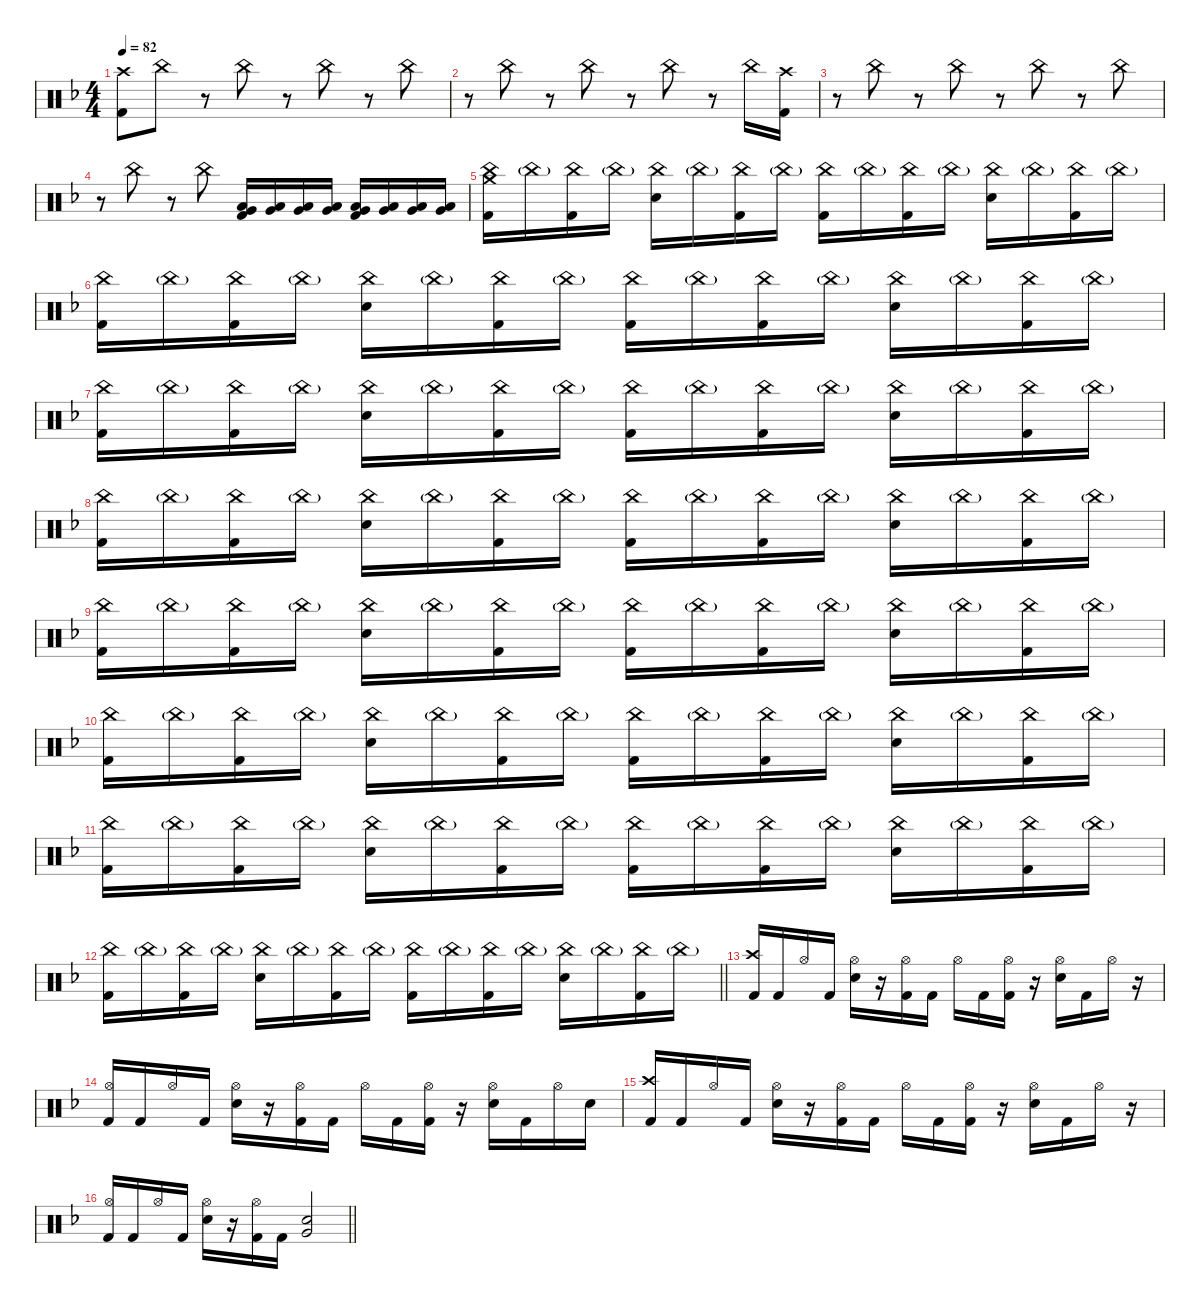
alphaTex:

\defaultSystemsLayout 4
\hideDynamics
\bracketExtendMode nobrackets
\singleTrackTrackNamePolicy hidden
\multiTrackTrackNamePolicy hidden
\firstSystemTrackNameMode fullname
\firstSystemTrackNameOrientation horizontal
\otherSystemsTrackNameOrientation horizontal
\track ("Drums" "drm.") {defaultSystemsLayout 4 instrument percussion}
\staff {score}
\articulation defaults
\ts (4 4)
\tempo 82
\clef neutral
\ks dminor
("Crash high (hit)"{acc forcenatural} "Kick (hit) 2"{acc forcenatural}).8{dy f beam Down} "China (hit)"{acc forcenatural}.8{dy mf beam Down} r.8{beam Down} "China (hit)"{acc forcenatural}.8{beam Down} r.8{beam Down} "China (hit)"{acc forcenatural}.8{beam Down} r.8{beam Down} "China (hit)"{acc forcenatural}.8{beam Down} |
r.8{beam Down} "China (hit)"{acc forcenatural}.8{beam Down} r.8{beam Down} "China (hit)"{acc forcenatural}.8{beam Down} r.8{beam Down} "China (hit)"{acc forcenatural}.8{beam Down} r.8{beam Down} "China (hit)"{acc forcenatural}.16{beam Down} ("Crash high (hit)"{acc forcenatural} "Kick (hit) 2"{acc forcenatural}).16{dy f beam Down} |
r.8{beam Down} "China (hit)"{acc forcenatural}.8{dy mf beam Down} r.8{beam Down} "China (hit)"{acc forcenatural}.8{beam Down} r.8{beam Down} "China (hit)"{acc forcenatural}.8{beam Down} r.8{beam Down} "China (hit)"{acc forcenatural}.8{beam Down} |
r.8{beam Down} "China (hit)"{acc forcenatural}.8{beam Down} r.8{beam Down} "China (hit)"{acc forcenatural}.8{beam Down} ("Low Tom (hit)"{acc forcenatural} "Very Low Tom (hit)"{acc forcenatural} "Kick (hit) 2"{acc forcenatural}).16{beam Up} ("Low Tom (hit)"{acc forcenatural} "Very Low Tom (hit)"{acc forcenatural}).16{beam Up} ("Low Tom (hit)"{acc forcenatural} "Very Low Tom (hit)"{acc forcenatural}).16{dy f beam Up} ("Low Tom (hit)"{acc forcenatural} "Very Low Tom (hit)"{acc forcenatural}).16{beam Up} ("Low Tom (hit)"{acc forcenatural} "Very Low Tom (hit)"{acc forcenatural} "Kick (hit) 2"{acc forcenatural}).16{dy ff beam Up} ("Low Tom (hit)"{acc forcenatural} "Very Low Tom (hit)"{acc forcenatural}).16{beam Up} ("Low Tom (hit)"{acc forcenatural} "Very Low Tom (hit)"{acc forcenatural}).16{dy fff beam Up} ("Low Tom (hit)"{acc forcenatural} "Very Low Tom (hit)"{acc forcenatural}).16{beam Up} |
("Crash medium (hit)"{acc forcenatural} "China (hit)"{acc forcenatural} "Kick (hit) 2"{acc forcenatural}).16{dy f beam Down} "China (hit)"{g acc forcenatural}.16{dy mf beam Down} ("China (hit)"{acc forcenatural} "Kick (hit) 2"{acc forcenatural}).16{beam Down} "China (hit)"{g acc forcenatural}.16{beam Down} ("China (hit)"{acc forcenatural} "Snare (hit) 2"{acc forcenatural}).16{beam Down} "China (hit)"{g acc forcenatural}.16{beam Down} ("China (hit)"{acc forcenatural} "Kick (hit) 2"{acc forcenatural}).16{beam Down} "China (hit)"{g acc forcenatural}.16{beam Down} ("China (hit)"{acc forcenatural} "Kick (hit) 2"{acc forcenatural}).16{beam Down} "China (hit)"{g acc forcenatural}.16{beam Down} ("China (hit)"{acc forcenatural} "Kick (hit) 2"{acc forcenatural}).16{beam Down} "China (hit)"{g acc forcenatural}.16{beam Down} ("China (hit)"{acc forcenatural} "Snare (hit) 2"{acc forcenatural}).16{beam Down} "China (hit)"{g acc forcenatural}.16{beam Down} ("China (hit)"{acc forcenatural} "Kick (hit) 2"{acc forcenatural}).16{beam Down} "China (hit)"{g acc forcenatural}.16{beam Down} |
("China (hit)"{acc forcenatural} "Kick (hit) 2"{acc forcenatural}).16{beam Down} "China (hit)"{g acc forcenatural}.16{beam Down} ("China (hit)"{acc forcenatural} "Kick (hit) 2"{acc forcenatural}).16{beam Down} "China (hit)"{g acc forcenatural}.16{beam Down} ("China (hit)"{acc forcenatural} "Snare (hit) 2"{acc forcenatural}).16{beam Down} "China (hit)"{g acc forcenatural}.16{beam Down} ("China (hit)"{acc forcenatural} "Kick (hit) 2"{acc forcenatural}).16{beam Down} "China (hit)"{g acc forcenatural}.16{beam Down} ("China (hit)"{acc forcenatural} "Kick (hit) 2"{acc forcenatural}).16{beam Down} "China (hit)"{g acc forcenatural}.16{beam Down} ("China (hit)"{acc forcenatural} "Kick (hit) 2"{acc forcenatural}).16{beam Down} "China (hit)"{g acc forcenatural}.16{beam Down} ("China (hit)"{acc forcenatural} "Snare (hit) 2"{acc forcenatural}).16{beam Down} "China (hit)"{g acc forcenatural}.16{beam Down} ("China (hit)"{acc forcenatural} "Kick (hit) 2"{acc forcenatural}).16{beam Down} "China (hit)"{g acc forcenatural}.16{beam Down} |
("China (hit)"{acc forcenatural} "Kick (hit) 2"{acc forcenatural}).16{beam Down} "China (hit)"{g acc forcenatural}.16{beam Down} ("China (hit)"{acc forcenatural} "Kick (hit) 2"{acc forcenatural}).16{beam Down} "China (hit)"{g acc forcenatural}.16{beam Down} ("China (hit)"{acc forcenatural} "Snare (hit) 2"{acc forcenatural}).16{beam Down} "China (hit)"{g acc forcenatural}.16{beam Down} ("China (hit)"{acc forcenatural} "Kick (hit) 2"{acc forcenatural}).16{beam Down} "China (hit)"{g acc forcenatural}.16{beam Down} ("China (hit)"{acc forcenatural} "Kick (hit) 2"{acc forcenatural}).16{beam Down} "China (hit)"{g acc forcenatural}.16{beam Down} ("China (hit)"{acc forcenatural} "Kick (hit) 2"{acc forcenatural}).16{beam Down} "China (hit)"{g acc forcenatural}.16{beam Down} ("China (hit)"{acc forcenatural} "Snare (hit) 2"{acc forcenatural}).16{beam Down} "China (hit)"{g acc forcenatural}.16{beam Down} ("China (hit)"{acc forcenatural} "Kick (hit) 2"{acc forcenatural}).16{beam Down} "China (hit)"{g acc forcenatural}.16{beam Down} |
("China (hit)"{acc forcenatural} "Kick (hit) 2"{acc forcenatural}).16{beam Down} "China (hit)"{g acc forcenatural}.16{beam Down} ("China (hit)"{acc forcenatural} "Kick (hit) 2"{acc forcenatural}).16{beam Down} "China (hit)"{g acc forcenatural}.16{beam Down} ("China (hit)"{acc forcenatural} "Snare (hit) 2"{acc forcenatural}).16{beam Down} "China (hit)"{g acc forcenatural}.16{beam Down} ("China (hit)"{acc forcenatural} "Kick (hit) 2"{acc forcenatural}).16{beam Down} "China (hit)"{g acc forcenatural}.16{beam Down} ("China (hit)"{acc forcenatural} "Kick (hit) 2"{acc forcenatural}).16{beam Down} "China (hit)"{g acc forcenatural}.16{beam Down} ("China (hit)"{acc forcenatural} "Kick (hit) 2"{acc forcenatural}).16{beam Down} "China (hit)"{g acc forcenatural}.16{beam Down} ("China (hit)"{acc forcenatural} "Snare (hit) 2"{acc forcenatural}).16{beam Down} "China (hit)"{g acc forcenatural}.16{beam Down} ("China (hit)"{acc forcenatural} "Kick (hit) 2"{acc forcenatural}).16{beam Down} "China (hit)"{g acc forcenatural}.16{beam Down} |
("China (hit)"{acc forcenatural} "Kick (hit) 2"{acc forcenatural}).16{beam Down} "China (hit)"{g acc forcenatural}.16{beam Down} ("China (hit)"{acc forcenatural} "Kick (hit) 2"{acc forcenatural}).16{beam Down} "China (hit)"{g acc forcenatural}.16{beam Down} ("China (hit)"{acc forcenatural} "Snare (hit) 2"{acc forcenatural}).16{beam Down} "China (hit)"{g acc forcenatural}.16{beam Down} ("China (hit)"{acc forcenatural} "Kick (hit) 2"{acc forcenatural}).16{beam Down} "China (hit)"{g acc forcenatural}.16{beam Down} ("China (hit)"{acc forcenatural} "Kick (hit) 2"{acc forcenatural}).16{beam Down} "China (hit)"{g acc forcenatural}.16{beam Down} ("China (hit)"{acc forcenatural} "Kick (hit) 2"{acc forcenatural}).16{beam Down} "China (hit)"{g acc forcenatural}.16{beam Down} ("China (hit)"{acc forcenatural} "Snare (hit) 2"{acc forcenatural}).16{beam Down} "China (hit)"{g acc forcenatural}.16{beam Down} ("China (hit)"{acc forcenatural} "Kick (hit) 2"{acc forcenatural}).16{beam Down} "China (hit)"{g acc forcenatural}.16{beam Down} |
("China (hit)"{acc forcenatural} "Kick (hit) 2"{acc forcenatural}).16{beam Down} "China (hit)"{g acc forcenatural}.16{beam Down} ("China (hit)"{acc forcenatural} "Kick (hit) 2"{acc forcenatural}).16{beam Down} "China (hit)"{g acc forcenatural}.16{beam Down} ("China (hit)"{acc forcenatural} "Snare (hit) 2"{acc forcenatural}).16{beam Down} "China (hit)"{g acc forcenatural}.16{beam Down} ("China (hit)"{acc forcenatural} "Kick (hit) 2"{acc forcenatural}).16{beam Down} "China (hit)"{g acc forcenatural}.16{beam Down} ("China (hit)"{acc forcenatural} "Kick (hit) 2"{acc forcenatural}).16{beam Down} "China (hit)"{g acc forcenatural}.16{beam Down} ("China (hit)"{acc forcenatural} "Kick (hit) 2"{acc forcenatural}).16{beam Down} "China (hit)"{g acc forcenatural}.16{beam Down} ("China (hit)"{acc forcenatural} "Snare (hit) 2"{acc forcenatural}).16{beam Down} "China (hit)"{g acc forcenatural}.16{beam Down} ("China (hit)"{acc forcenatural} "Kick (hit) 2"{acc forcenatural}).16{beam Down} "China (hit)"{g acc forcenatural}.16{beam Down} |
("China (hit)"{acc forcenatural} "Kick (hit) 2"{acc forcenatural}).16{beam Down} "China (hit)"{g acc forcenatural}.16{beam Down} ("China (hit)"{acc forcenatural} "Kick (hit) 2"{acc forcenatural}).16{beam Down} "China (hit)"{g acc forcenatural}.16{beam Down} ("China (hit)"{acc forcenatural} "Snare (hit) 2"{acc forcenatural}).16{beam Down} "China (hit)"{g acc forcenatural}.16{beam Down} ("China (hit)"{acc forcenatural} "Kick (hit) 2"{acc forcenatural}).16{beam Down} "China (hit)"{g acc forcenatural}.16{beam Down} ("China (hit)"{acc forcenatural} "Kick (hit) 2"{acc forcenatural}).16{beam Down} "China (hit)"{g acc forcenatural}.16{beam Down} ("China (hit)"{acc forcenatural} "Kick (hit) 2"{acc forcenatural}).16{beam Down} "China (hit)"{g acc forcenatural}.16{beam Down} ("China (hit)"{acc forcenatural} "Snare (hit) 2"{acc forcenatural}).16{beam Down} "China (hit)"{g acc forcenatural}.16{beam Down} ("China (hit)"{acc forcenatural} "Kick (hit) 2"{acc forcenatural}).16{beam Down} "China (hit)"{g acc forcenatural}.16{beam Down} |
\barLineRight lightlight
("China (hit)"{acc forcenatural} "Kick (hit) 2"{acc forcenatural}).16{beam Down} "China (hit)"{g acc forcenatural}.16{beam Down} ("China (hit)"{acc forcenatural} "Kick (hit) 2"{acc forcenatural}).16{beam Down} "China (hit)"{g acc forcenatural}.16{beam Down} ("China (hit)"{acc forcenatural} "Snare (hit) 2"{acc forcenatural}).16{beam Down} "China (hit)"{g acc forcenatural}.16{beam Down} ("China (hit)"{acc forcenatural} "Kick (hit) 2"{acc forcenatural}).16{beam Down} "China (hit)"{g acc forcenatural}.16{beam Down} ("China (hit)"{acc forcenatural} "Kick (hit) 2"{acc forcenatural}).16{beam Down} "China (hit)"{g acc forcenatural}.16{beam Down} ("China (hit)"{acc forcenatural} "Kick (hit) 2"{acc forcenatural}).16{beam Down} "China (hit)"{g acc forcenatural}.16{beam Down} ("China (hit)"{acc forcenatural} "Snare (hit) 2"{acc forcenatural}).16{beam Down} "China (hit)"{g acc forcenatural}.16{beam Down} ("China (hit)"{acc forcenatural} "Kick (hit) 2"{acc forcenatural}).16{beam Down} "China (hit)"{g acc forcenatural}.16{beam Down} |
("Crash high (hit)"{acc forcenatural} "Kick (hit) 2"{acc forcenatural}).16{dy f beam Up} "Kick (hit) 2"{acc forcenatural}.16{beam Up} "Hi-Hat (open)"{acc forcenatural}.16{dy mp beam Up} "Kick (hit) 2"{acc forcenatural}.16{dy f beam Up} ("Hi-Hat (open)"{acc forcenatural} "Snare (hit) 2"{acc forcenatural}).16{dy mp beam Down} r.16{beam Down} ("Hi-Hat (open)"{acc forcenatural} "Kick (hit) 2"{acc forcenatural}).16{beam Down} "Kick (hit) 2"{acc forcenatural}.16{dy f beam Down} "Hi-Hat (open)"{acc forcenatural}.16{dy mp beam Down} "Kick (hit) 2"{acc forcenatural}.16{dy f beam Down} ("Hi-Hat (open)"{acc forcenatural} "Kick (hit) 2"{acc forcenatural}).16{dy mp beam Down} r.16{beam Down} ("Hi-Hat (open)"{acc forcenatural} "Snare (hit) 2"{acc forcenatural}).16{beam Down} "Kick (hit) 2"{acc forcenatural}.16{dy f beam Down} "Hi-Hat (open)"{acc forcenatural}.16{dy mp beam Down} r.16{beam Down} |
("Hi-Hat (open)"{acc forcenatural} "Kick (hit) 2"{acc forcenatural}).16{beam Up} "Kick (hit) 2"{acc forcenatural}.16{dy f beam Up} "Hi-Hat (open)"{acc forcenatural}.16{dy mp beam Up} "Kick (hit) 2"{acc forcenatural}.16{dy f beam Up} ("Hi-Hat (open)"{acc forcenatural} "Snare (hit) 2"{acc forcenatural}).16{dy mp beam Down} r.16{beam Down} ("Hi-Hat (open)"{acc forcenatural} "Kick (hit) 2"{acc forcenatural}).16{beam Down} "Kick (hit) 2"{acc forcenatural}.16{dy f beam Down} "Hi-Hat (open)"{acc forcenatural}.16{dy mp beam Down} "Kick (hit) 2"{acc forcenatural}.16{dy f beam Down} ("Hi-Hat (open)"{acc forcenatural} "Kick (hit) 2"{acc forcenatural}).16{dy mp beam Down} r.16{beam Down} ("Hi-Hat (open)"{acc forcenatural} "Snare (hit) 2"{acc forcenatural}).16{beam Down} "Kick (hit) 2"{acc forcenatural}.16{dy f beam Down} "Hi-Hat (open)"{acc forcenatural}.16{dy mp beam Down} "Snare (hit) 2"{acc forcenatural}.16{dy f beam Down} |
("Crash high (hit)"{acc forcenatural} "Kick (hit) 2"{acc forcenatural}).16{beam Up} "Kick (hit) 2"{acc forcenatural}.16{beam Up} "Hi-Hat (open)"{acc forcenatural}.16{dy mp beam Up} "Kick (hit) 2"{acc forcenatural}.16{dy f beam Up} ("Hi-Hat (open)"{acc forcenatural} "Snare (hit) 2"{acc forcenatural}).16{dy mp beam Down} r.16{beam Down} ("Hi-Hat (open)"{acc forcenatural} "Kick (hit) 2"{acc forcenatural}).16{beam Down} "Kick (hit) 2"{acc forcenatural}.16{dy f beam Down} "Hi-Hat (open)"{acc forcenatural}.16{dy mp beam Down} "Kick (hit) 2"{acc forcenatural}.16{dy f beam Down} ("Hi-Hat (open)"{acc forcenatural} "Kick (hit) 2"{acc forcenatural}).16{dy mp beam Down} r.16{beam Down} ("Hi-Hat (open)"{acc forcenatural} "Snare (hit) 2"{acc forcenatural}).16{beam Down} "Kick (hit) 2"{acc forcenatural}.16{dy f beam Down} "Hi-Hat (open)"{acc forcenatural}.16{dy mp beam Down} r.16{beam Down} |
\barLineRight lightlight
("Hi-Hat (open)"{acc forcenatural} "Kick (hit) 2"{acc forcenatural}).16{beam Up} "Kick (hit) 2"{acc forcenatural}.16{dy f beam Up} "Hi-Hat (open)"{acc forcenatural}.16{dy mp beam Up} "Kick (hit) 2"{acc forcenatural}.16{dy f beam Up} ("Hi-Hat (open)"{acc forcenatural} "Snare (hit) 2"{acc forcenatural}).16{dy mp beam Down} r.16{beam Down} ("Hi-Hat (open)"{acc forcenatural} "Kick (hit) 2"{acc forcenatural}).16{beam Down} "Kick (hit) 2"{acc forcenatural}.16{dy f beam Down} ("Snare (hit) 2"{acc forcenatural} "Very Low Tom (hit)"{acc forcenatural}).2{beam Up}
